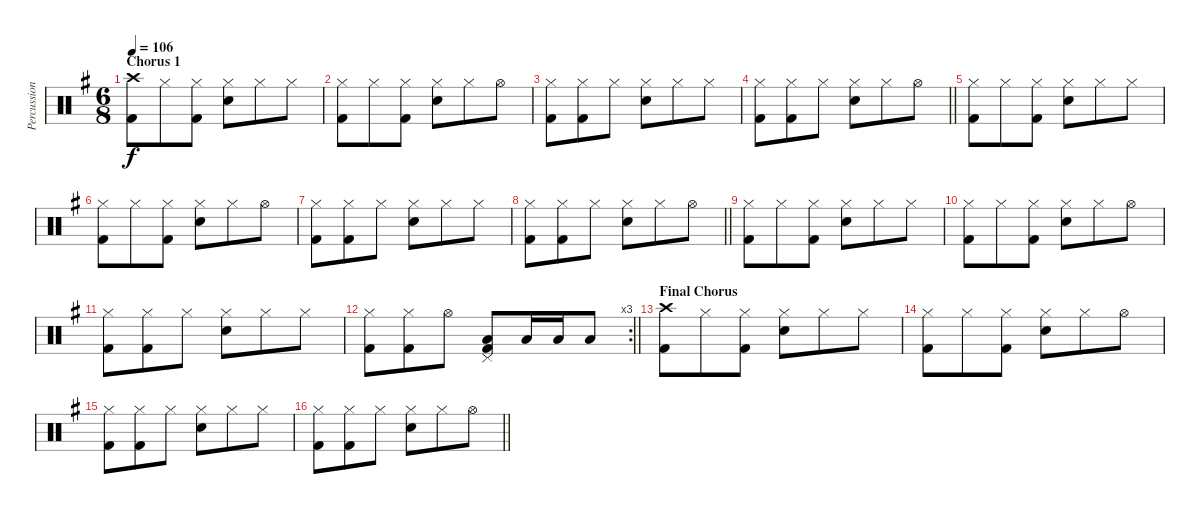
\track ("Percussion" "Percussion") {instrument percussion}
\staff {score}
\articulation defaults
\ts (6 8)
\section ("" "Chorus 1")
\tempo 106
\clef neutral
\ks g
("Crash high (hit)" "Kick (hit) 2").8{dy f} "Hi-Hat (closed)".8 ("Hi-Hat (closed)" "Kick (hit) 2").8 ("Hi-Hat (closed)" "Snare (hit) 2").8 "Hi-Hat (closed)".8 "Hi-Hat (closed)".8 |
("Hi-Hat (closed)" "Kick (hit) 2").8 "Hi-Hat (closed)".8 ("Hi-Hat (closed)" "Kick (hit) 2").8 ("Hi-Hat (closed)" "Snare (hit) 2").8 "Hi-Hat (closed)".8 "Hi-Hat (open)".8 |
("Hi-Hat (closed)" "Kick (hit) 2").8 ("Hi-Hat (closed)" "Kick (hit) 2").8 "Hi-Hat (closed)".8 ("Hi-Hat (closed)" "Snare (hit) 2").8 "Hi-Hat (closed)".8 "Hi-Hat (closed)".8 |
\barLineRight lightlight
("Hi-Hat (closed)" "Kick (hit) 2").8 ("Hi-Hat (closed)" "Kick (hit) 2").8 "Hi-Hat (closed)".8 ("Hi-Hat (closed)" "Snare (hit) 2").8 "Hi-Hat (closed)".8 "Hi-Hat (open)".8 |
("Hi-Hat (closed)" "Kick (hit) 2").8 "Hi-Hat (closed)".8 ("Hi-Hat (closed)" "Kick (hit) 2").8 ("Hi-Hat (closed)" "Snare (hit) 2").8 "Hi-Hat (closed)".8 "Hi-Hat (closed)".8 |
("Hi-Hat (closed)" "Kick (hit) 2").8 "Hi-Hat (closed)".8 ("Hi-Hat (closed)" "Kick (hit) 2").8 ("Hi-Hat (closed)" "Snare (hit) 2").8 "Hi-Hat (closed)".8 "Hi-Hat (open)".8 |
("Hi-Hat (closed)" "Kick (hit) 2").8 ("Hi-Hat (closed)" "Kick (hit) 2").8 "Hi-Hat (closed)".8 ("Hi-Hat (closed)" "Snare (hit) 2").8 "Hi-Hat (closed)".8 "Hi-Hat (closed)".8 |
\barLineRight lightlight
("Hi-Hat (closed)" "Kick (hit) 2").8 ("Hi-Hat (closed)" "Kick (hit) 2").8 "Hi-Hat (closed)".8 ("Hi-Hat (closed)" "Snare (hit) 2").8 "Hi-Hat (closed)".8 "Hi-Hat (open)".8 |
("Hi-Hat (closed)" "Kick (hit) 2").8 "Hi-Hat (closed)".8 ("Hi-Hat (closed)" "Kick (hit) 2").8 ("Hi-Hat (closed)" "Snare (hit) 2").8 "Hi-Hat (closed)".8 "Hi-Hat (closed)".8 |
("Hi-Hat (closed)" "Kick (hit) 2").8 "Hi-Hat (closed)".8 ("Hi-Hat (closed)" "Kick (hit) 2").8 ("Hi-Hat (closed)" "Snare (hit) 2").8 "Hi-Hat (closed)".8 "Hi-Hat (open)".8 |
("Hi-Hat (closed)" "Kick (hit) 2").8 ("Hi-Hat (closed)" "Kick (hit) 2").8 "Hi-Hat (closed)".8 ("Hi-Hat (closed)" "Snare (hit) 2").8 "Hi-Hat (closed)".8 "Hi-Hat (closed)".8 |
\rc 3
\barLineRight lightlight
("Hi-Hat (closed)" "Kick (hit) 2").8 ("Hi-Hat (closed)" "Kick (hit) 2").8 "Hi-Hat (open)".8 ("Low Floor Tom (hit)" "Pedal Hi-Hat (hit)" "Kick (hit) 2").8 "Low Tom (hit)".16 "Low Tom (hit)".16 "Low Floor Tom (hit)".8 |
\section ("" "Final Chorus")
("Crash high (hit)" "Kick (hit) 2").8 "Hi-Hat (closed)".8 ("Hi-Hat (closed)" "Kick (hit) 2").8 ("Hi-Hat (closed)" "Snare (hit) 2").8 "Hi-Hat (closed)".8 "Hi-Hat (closed)".8 |
("Hi-Hat (closed)" "Kick (hit) 2").8 "Hi-Hat (closed)".8 ("Hi-Hat (closed)" "Kick (hit) 2").8 ("Hi-Hat (closed)" "Snare (hit) 2").8 "Hi-Hat (closed)".8 "Hi-Hat (open)".8 |
("Hi-Hat (closed)" "Kick (hit) 2").8 ("Hi-Hat (closed)" "Kick (hit) 2").8 "Hi-Hat (closed)".8 ("Hi-Hat (closed)" "Snare (hit) 2").8 "Hi-Hat (closed)".8 "Hi-Hat (closed)".8 |
\barLineRight lightlight
("Hi-Hat (closed)" "Kick (hit) 2").8 ("Hi-Hat (closed)" "Kick (hit) 2").8 "Hi-Hat (closed)".8 ("Hi-Hat (closed)" "Snare (hit) 2").8 "Hi-Hat (closed)".8 "Hi-Hat (open)".8
